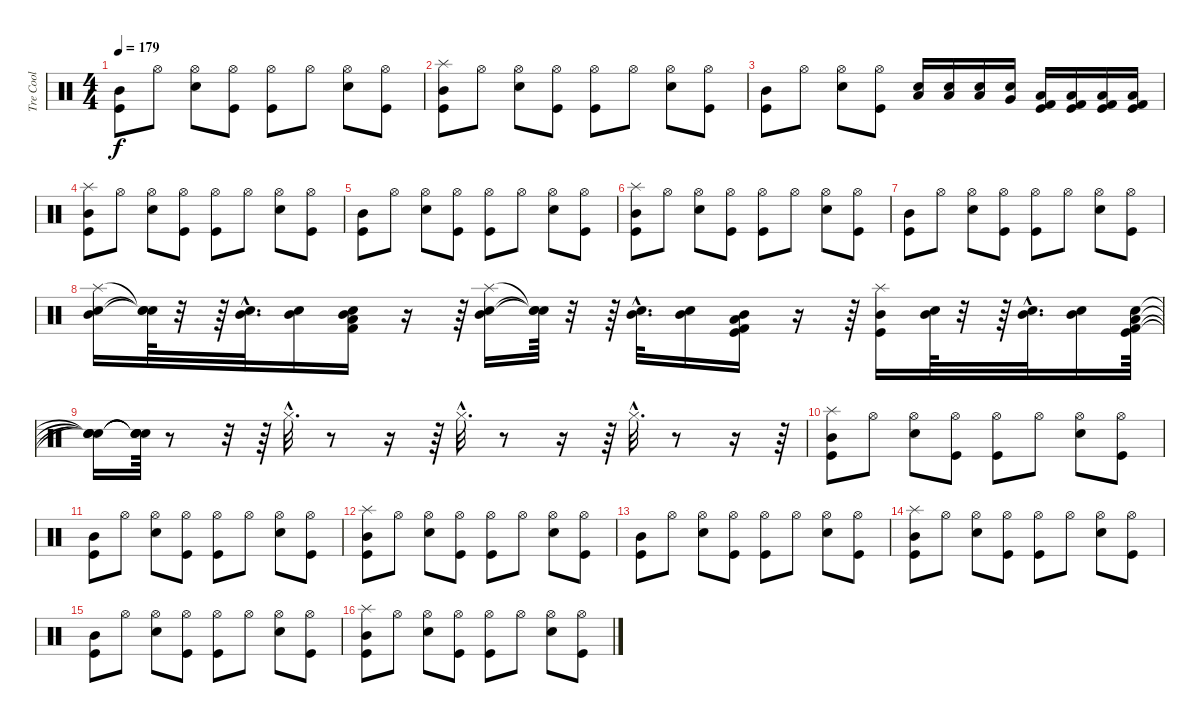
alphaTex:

\track ("Tre Cool" "Tre Cool") {instrument percussion}
\staff {score}
\articulation defaults
\ts (4 4)
\tempo 179
\clef neutral
\ks c
("Mid Tom (hit)" "Kick (hit)").8{dy f} "Hi-Hat (open)".8 ("Hi-Hat (open)" "Snare (hit) 2").8 ("Hi-Hat (open)" "Kick (hit)").8 ("Hi-Hat (open)" "Kick (hit)").8 "Hi-Hat (open)".8 ("Hi-Hat (open)" "Snare (hit) 2").8 ("Hi-Hat (open)" "Kick (hit)").8 |
("Splash (hit)" "Mid Tom (hit)" "Kick (hit)").8 "Hi-Hat (open)".8 ("Hi-Hat (open)" "Snare (hit) 2").8 ("Hi-Hat (open)" "Kick (hit)").8 ("Hi-Hat (open)" "Kick (hit)").8 "Hi-Hat (open)".8 ("Hi-Hat (open)" "Snare (hit) 2").8 ("Hi-Hat (open)" "Kick (hit)").8 |
("Mid Tom (hit)" "Kick (hit)").8 "Hi-Hat (open)".8 ("Hi-Hat (open)" "Snare (hit) 2").8 ("Hi-Hat (open)" "Kick (hit)").8 ("Electric Snare (hit)" "Low Tom (hit)").16 ("Electric Snare (hit)" "Low Tom (hit)").16 ("Electric Snare (hit)" "Low Tom (hit)").16 ("Electric Snare (hit)" "Very Low Tom (hit)").16 ("Kick (hit)" "Kick (hit) 2" "Low Floor Tom (hit)").16 ("Kick (hit)" "Kick (hit) 2" "Low Floor Tom (hit)").16 ("Kick (hit)" "Low Floor Tom (hit)" "Kick (hit) 2").16 ("Kick (hit)" "Kick (hit) 2" "Low Floor Tom (hit)").16 |
("Splash (hit)" "Mid Tom (hit)" "Kick (hit)").8 "Hi-Hat (open)".8 ("Hi-Hat (open)" "Snare (hit) 2").8 ("Hi-Hat (open)" "Kick (hit)").8 ("Hi-Hat (open)" "Kick (hit)").8 "Hi-Hat (open)".8 ("Hi-Hat (open)" "Snare (hit) 2").8 ("Hi-Hat (open)" "Kick (hit)").8 |
("Mid Tom (hit)" "Kick (hit)").8 "Hi-Hat (open)".8 ("Hi-Hat (open)" "Snare (hit) 2").8 ("Hi-Hat (open)" "Kick (hit)").8 ("Hi-Hat (open)" "Kick (hit)").8 "Hi-Hat (open)".8 ("Hi-Hat (open)" "Snare (hit) 2").8 ("Hi-Hat (open)" "Kick (hit)").8 |
("Splash (hit)" "Mid Tom (hit)" "Kick (hit)").8 "Hi-Hat (open)".8 ("Hi-Hat (open)" "Snare (hit) 2").8 ("Hi-Hat (open)" "Kick (hit)").8 ("Hi-Hat (open)" "Kick (hit)").8 "Hi-Hat (open)".8 ("Hi-Hat (open)" "Snare (hit) 2").8 ("Hi-Hat (open)" "Kick (hit)").8 |
("Mid Tom (hit)" "Kick (hit)").8 "Hi-Hat (open)".8 ("Hi-Hat (open)" "Snare (hit) 2").8 ("Hi-Hat (open)" "Kick (hit)").8 ("Hi-Hat (open)" "Kick (hit)").8 "Hi-Hat (open)".8 ("Hi-Hat (open)" "Snare (hit) 2").8 ("Hi-Hat (open)" "Kick (hit)").8 |
("Mid Tom (hit)" "Snare (hit) 2" "Splash (hit)").16 ("Snare (hit)"{t} "Snare (hit)"{t} "Snare (hit)"{t}).64 r.32 r.64 ("Mid Tom (hit)"{hac} "Snare (hit) 2"{hac}).32{d} ("Mid Tom (hit)" "Snare (hit) 2").16 ("Mid Tom (hit)" "Kick (hit) 2" "Snare (hit) 2" "Low Floor Tom (hit)").16 r.16 r.64 ("Mid Tom (hit)" "Snare (hit) 2" "Splash (hit)").16 ("Snare (hit)"{t} "Snare (hit)"{t} "Snare (hit)"{t}).64 r.32 r.64 ("Mid Tom (hit)"{hac} "Snare (hit) 2"{hac}).32{d} ("Mid Tom (hit)" "Snare (hit) 2").16 ("Mid Tom (hit)" "Low Floor Tom (hit)" "Kick (hit)" "Kick (hit) 2").16 r.16 r.64 ("Mid Tom (hit)" "Kick (hit)" "Splash (hit)").16 ("Mid Tom (hit)" "Snare (hit) 2").64 r.32 r.64 ("Mid Tom (hit)"{hac} "Snare (hit) 2"{hac}).32{d} ("Mid Tom (hit)" "Snare (hit) 2").16 ("Kick (hit)" "Kick (hit) 2" "Snare (hit) 2" "Low Tom (hit)").64 |
("Snare (hit)"{t} "Snare (hit)"{t} "Snare (hit)"{t} "Snare (hit)"{t}).16 ("Snare (hit)"{t} "Snare (hit)"{t} "Snare (hit)"{t} "Snare (hit)"{t}).64 r.8 r.32 r.64 "Hi-Hat (closed)"{hac}.32{d} r.8 r.16 r.64 "Hi-Hat (closed)"{hac}.32{d} r.8 r.16 r.64 "Hi-Hat (closed)"{hac}.32{d} r.8 r.16 r.64 |
("Splash (hit)" "Mid Tom (hit)" "Kick (hit)").8 "Hi-Hat (open)".8 ("Hi-Hat (open)" "Snare (hit) 2").8 ("Hi-Hat (open)" "Kick (hit)").8 ("Hi-Hat (open)" "Kick (hit)").8 "Hi-Hat (open)".8 ("Hi-Hat (open)" "Snare (hit) 2").8 ("Hi-Hat (open)" "Kick (hit)").8 |
("Mid Tom (hit)" "Kick (hit)").8 "Hi-Hat (open)".8 ("Hi-Hat (open)" "Snare (hit) 2").8 ("Hi-Hat (open)" "Kick (hit)").8 ("Hi-Hat (open)" "Kick (hit)").8 "Hi-Hat (open)".8 ("Hi-Hat (open)" "Snare (hit) 2").8 ("Hi-Hat (open)" "Kick (hit)").8 |
("Splash (hit)" "Mid Tom (hit)" "Kick (hit)").8 "Hi-Hat (open)".8 ("Hi-Hat (open)" "Snare (hit) 2").8 ("Hi-Hat (open)" "Kick (hit)").8 ("Hi-Hat (open)" "Kick (hit)").8 "Hi-Hat (open)".8 ("Hi-Hat (open)" "Snare (hit) 2").8 ("Hi-Hat (open)" "Kick (hit)").8 |
("Mid Tom (hit)" "Kick (hit)").8 "Hi-Hat (open)".8 ("Hi-Hat (open)" "Snare (hit) 2").8 ("Hi-Hat (open)" "Kick (hit)").8 ("Hi-Hat (open)" "Kick (hit)").8 "Hi-Hat (open)".8 ("Hi-Hat (open)" "Snare (hit) 2").8 ("Hi-Hat (open)" "Kick (hit)").8 |
("Splash (hit)" "Mid Tom (hit)" "Kick (hit)").8 "Hi-Hat (open)".8 ("Hi-Hat (open)" "Snare (hit) 2").8 ("Hi-Hat (open)" "Kick (hit)").8 ("Hi-Hat (open)" "Kick (hit)").8 "Hi-Hat (open)".8 ("Hi-Hat (open)" "Snare (hit) 2").8 ("Hi-Hat (open)" "Kick (hit)").8 |
("Mid Tom (hit)" "Kick (hit)").8 "Hi-Hat (open)".8 ("Hi-Hat (open)" "Snare (hit) 2").8 ("Hi-Hat (open)" "Kick (hit)").8 ("Hi-Hat (open)" "Kick (hit)").8 "Hi-Hat (open)".8 ("Hi-Hat (open)" "Snare (hit) 2").8 ("Hi-Hat (open)" "Kick (hit)").8 |
("Splash (hit)" "Mid Tom (hit)" "Kick (hit)").8 "Hi-Hat (open)".8 ("Hi-Hat (open)" "Snare (hit) 2").8 ("Hi-Hat (open)" "Kick (hit)").8 ("Hi-Hat (open)" "Kick (hit)").8 "Hi-Hat (open)".8 ("Hi-Hat (open)" "Snare (hit) 2").8 ("Hi-Hat (open)" "Kick (hit)").8
